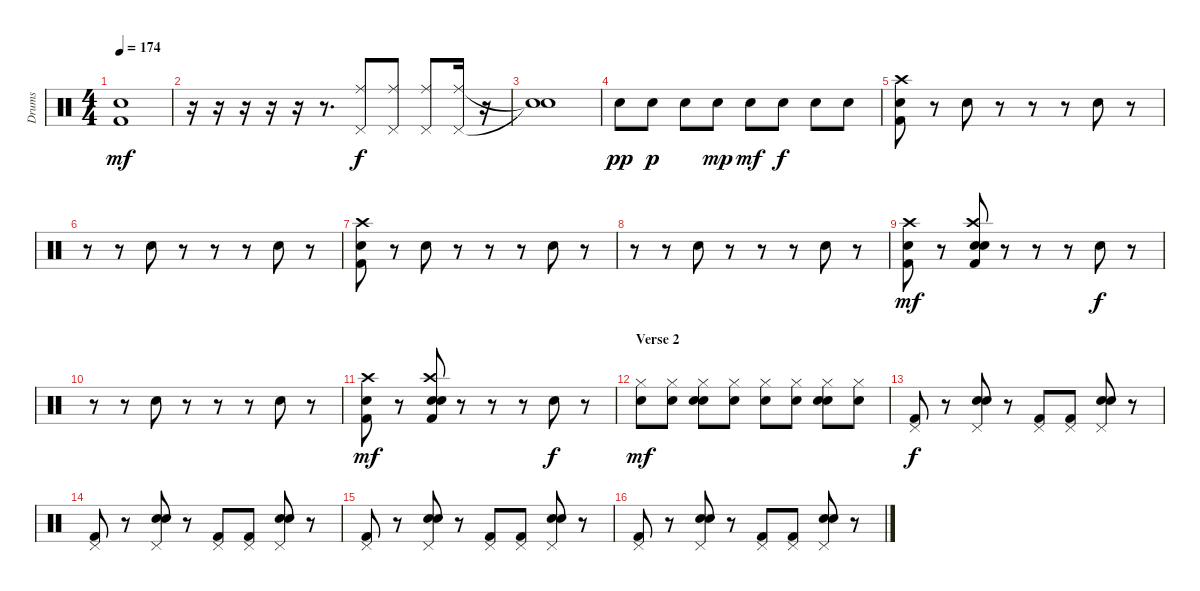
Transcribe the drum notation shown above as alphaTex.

\track ("Drums" "Drums") {instrument percussion}
\staff {score}
\articulation defaults
\ts (4 4)
\tempo 174
\clef neutral
\ks c
("Kick (hit) 2" "Electric Snare (hit)").1{dy mf} |
r.16 r.16 r.16 r.16 r.16 r.8{d} ("Ride (middle)" "Pedal Hi-Hat (hit)").8{dy f} ("Ride (middle)" "Pedal Hi-Hat (hit)").8 ("Ride (middle)" "Pedal Hi-Hat (hit)").8 ("Ride (middle)" "Pedal Hi-Hat (hit)").16 r.16 |
("Snare (hit)"{t} "Snare (hit)"{t}).1 |
"Electric Snare (hit)".8{dy pp} "Electric Snare (hit)".8{dy p} "Electric Snare (hit)".8 "Electric Snare (hit)".8{dy mp} "Electric Snare (hit)".8{dy mf} "Electric Snare (hit)".8{dy f} "Electric Snare (hit)".8 "Electric Snare (hit)".8 |
("Kick (hit) 2" "Snare (hit) 2" "Crash high (hit)").8 r.8 "Hand Clap (hit)".8 r.8 r.8 r.8 "Hand Clap (hit)".8 r.8 |
r.8 r.8 "Hand Clap (hit)".8 r.8 r.8 r.8 "Hand Clap (hit)".8 r.8 |
("Kick (hit) 2" "Snare (hit) 2" "Crash high (hit)").8 r.8 "Hand Clap (hit)".8 r.8 r.8 r.8 "Hand Clap (hit)".8 r.8 |
r.8 r.8 "Hand Clap (hit)".8 r.8 r.8 r.8 "Hand Clap (hit)".8 r.8 |
("Kick (hit) 2" "Snare (hit) 2" "Crash high (hit)").8{dy mf} r.8 ("Kick (hit) 2" "Snare (hit) 2" "Crash high (hit)" "Hand Clap (hit)").8 r.8 r.8 r.8 "Hand Clap (hit)".8{dy f} r.8 |
r.8 r.8 "Hand Clap (hit)".8 r.8 r.8 r.8 "Hand Clap (hit)".8 r.8 |
("Kick (hit) 2" "Snare (hit) 2" "Crash high (hit)").8{dy mf} r.8 ("Kick (hit) 2" "Snare (hit) 2" "Crash high (hit)" "Hand Clap (hit)").8 r.8 r.8 r.8 "Hand Clap (hit)".8{dy f} r.8 |
\section ("" "Verse 2")
("Snare (hit) 2" "Hi-Hat (closed)").8{dy mf} ("Snare (hit) 2" "Hi-Hat (closed)").8 ("Snare (hit) 2" "Hi-Hat (closed)" "Hand Clap (hit)").8 ("Snare (hit) 2" "Hi-Hat (closed)").8 ("Snare (hit) 2" "Hi-Hat (closed)").8 ("Snare (hit) 2" "Hi-Hat (closed)").8 ("Snare (hit) 2" "Hi-Hat (closed)" "Hand Clap (hit)").8 ("Snare (hit) 2" "Hi-Hat (closed)").8 |
("Kick (hit) 2" "Pedal Hi-Hat (hit)").8{dy f} r.8 ("Snare (hit) 2" "Pedal Hi-Hat (hit)" "Hand Clap (hit)").8 r.8 ("Kick (hit) 2" "Pedal Hi-Hat (hit)").8 ("Kick (hit) 2" "Pedal Hi-Hat (hit)").8 ("Snare (hit) 2" "Pedal Hi-Hat (hit)" "Hand Clap (hit)").8 r.8 |
("Kick (hit) 2" "Pedal Hi-Hat (hit)").8 r.8 ("Snare (hit) 2" "Pedal Hi-Hat (hit)" "Hand Clap (hit)").8 r.8 ("Kick (hit) 2" "Pedal Hi-Hat (hit)").8 ("Kick (hit) 2" "Pedal Hi-Hat (hit)").8 ("Snare (hit) 2" "Pedal Hi-Hat (hit)" "Hand Clap (hit)").8 r.8 |
("Kick (hit) 2" "Pedal Hi-Hat (hit)").8 r.8 ("Snare (hit) 2" "Pedal Hi-Hat (hit)" "Hand Clap (hit)").8 r.8 ("Kick (hit) 2" "Pedal Hi-Hat (hit)").8 ("Kick (hit) 2" "Pedal Hi-Hat (hit)").8 ("Snare (hit) 2" "Pedal Hi-Hat (hit)" "Hand Clap (hit)").8 r.8 |
("Kick (hit) 2" "Pedal Hi-Hat (hit)").8 r.8 ("Snare (hit) 2" "Pedal Hi-Hat (hit)" "Hand Clap (hit)").8 r.8 ("Kick (hit) 2" "Pedal Hi-Hat (hit)").8 ("Kick (hit) 2" "Pedal Hi-Hat (hit)").8 ("Snare (hit) 2" "Pedal Hi-Hat (hit)" "Hand Clap (hit)").8 r.8
